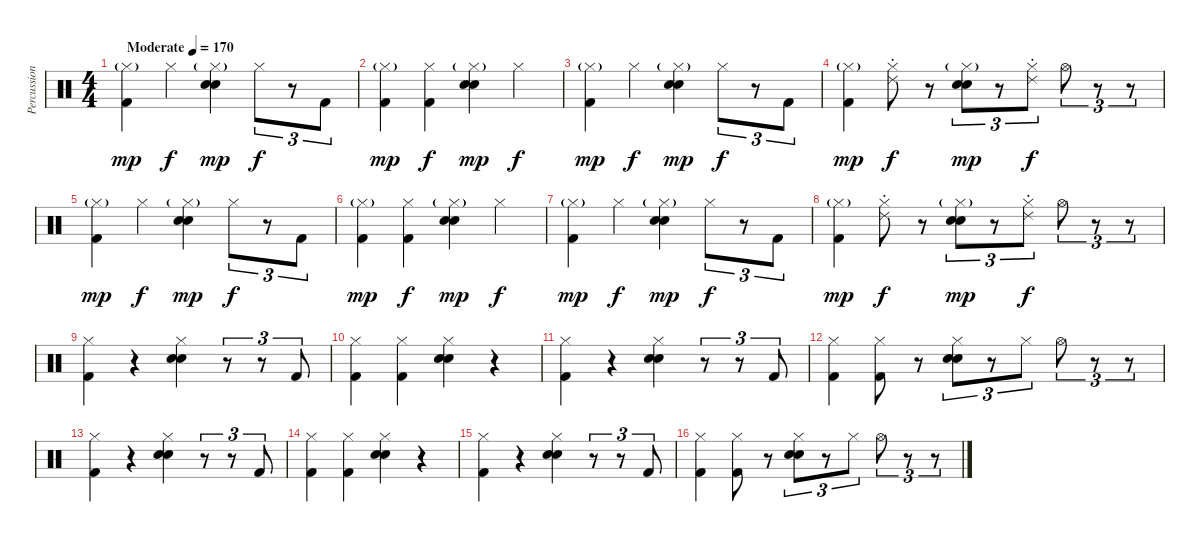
\track ("Percussion" "Percussion") {instrument percussion}
\staff {score}
\articulation defaults
\ts (4 4)
\tempo (170 "Moderate")
\clef neutral
\ks c
("Hi-Hat (closed)"{g} "Kick (hit) 2").4{dy mp} "Hi-Hat (closed)".4{dy f} ("Hi-Hat (closed)"{g} "Hand Clap (hit)" "Electric Snare (hit)").4{dy mp} "Hi-Hat (closed)".8{tu (3 2) dy f} r.8{tu (3 2)} "Kick (hit) 2".8{tu (3 2)} |
("Hi-Hat (closed)"{g} "Kick (hit) 2").4{dy mp} ("Hi-Hat (closed)" "Kick (hit) 2").4{dy f} ("Hi-Hat (closed)"{g} "Hand Clap (hit)" "Electric Snare (hit)").4{dy mp} "Hi-Hat (closed)".4{dy f} |
("Hi-Hat (closed)"{g} "Kick (hit) 2").4{dy mp} "Hi-Hat (closed)".4{dy f} ("Hi-Hat (closed)"{g} "Hand Clap (hit)" "Electric Snare (hit)").4{dy mp} "Hi-Hat (closed)".8{tu (3 2) dy f} r.8{tu (3 2)} "Kick (hit) 2".8{tu (3 2)} |
("Hi-Hat (closed)"{g} "Kick (hit) 2").4{dy mp} ("Hi-Hat (closed)" "Ride (choke) 2").8{dy f} r.8 ("Hi-Hat (closed)"{g} "Hand Clap (hit)" "Electric Snare (hit)").8{tu (3 2) dy mp} r.8{tu (3 2)} ("Hi-Hat (closed)" "Ride (choke) 2").8{tu (3 2) dy f} "Hi-Hat (open)".8{tu (3 2)} r.8{tu (3 2)} r.8{tu (3 2)} |
("Hi-Hat (closed)"{g} "Kick (hit) 2").4{dy mp} "Hi-Hat (closed)".4{dy f} ("Hi-Hat (closed)"{g} "Hand Clap (hit)" "Electric Snare (hit)").4{dy mp} "Hi-Hat (closed)".8{tu (3 2) dy f} r.8{tu (3 2)} "Kick (hit) 2".8{tu (3 2)} |
("Hi-Hat (closed)"{g} "Kick (hit) 2").4{dy mp} ("Hi-Hat (closed)" "Kick (hit) 2").4{dy f} ("Hi-Hat (closed)"{g} "Hand Clap (hit)" "Electric Snare (hit)").4{dy mp} "Hi-Hat (closed)".4{dy f} |
("Hi-Hat (closed)"{g} "Kick (hit) 2").4{dy mp} "Hi-Hat (closed)".4{dy f} ("Hi-Hat (closed)"{g} "Hand Clap (hit)" "Electric Snare (hit)").4{dy mp} "Hi-Hat (closed)".8{tu (3 2) dy f} r.8{tu (3 2)} "Kick (hit) 2".8{tu (3 2)} |
("Hi-Hat (closed)"{g} "Kick (hit) 2").4{dy mp} ("Hi-Hat (closed)" "Ride (choke) 2").8{dy f} r.8 ("Hi-Hat (closed)"{g} "Hand Clap (hit)" "Electric Snare (hit)").8{tu (3 2) dy mp} r.8{tu (3 2)} ("Hi-Hat (closed)" "Ride (choke) 2").8{tu (3 2) dy f} "Hi-Hat (open)".8{tu (3 2)} r.8{tu (3 2)} r.8{tu (3 2)} |
("Hi-Hat (closed)" "Kick (hit) 2").4 r.4 ("Hi-Hat (closed)" "Hand Clap (hit)" "Electric Snare (hit)").4 r.8{tu (3 2)} r.8{tu (3 2)} "Kick (hit) 2".8{tu (3 2)} |
("Hi-Hat (closed)" "Kick (hit) 2").4 ("Hi-Hat (closed)" "Kick (hit) 2").4 ("Hi-Hat (closed)" "Hand Clap (hit)" "Electric Snare (hit)").4 r.4 |
("Hi-Hat (closed)" "Kick (hit) 2").4 r.4 ("Hi-Hat (closed)" "Hand Clap (hit)" "Electric Snare (hit)").4 r.8{tu (3 2)} r.8{tu (3 2)} "Kick (hit) 2".8{tu (3 2)} |
("Hi-Hat (closed)" "Kick (hit) 2").4 ("Hi-Hat (closed)" "Kick (hit) 2").8 r.8 ("Hi-Hat (closed)" "Hand Clap (hit)" "Electric Snare (hit)").8{tu (3 2)} r.8{tu (3 2)} "Hi-Hat (closed)".8{tu (3 2)} "Hi-Hat (open)".8{tu (3 2)} r.8{tu (3 2)} r.8{tu (3 2)} |
("Hi-Hat (closed)" "Kick (hit) 2").4 r.4 ("Hi-Hat (closed)" "Hand Clap (hit)" "Electric Snare (hit)").4 r.8{tu (3 2)} r.8{tu (3 2)} "Kick (hit) 2".8{tu (3 2)} |
("Hi-Hat (closed)" "Kick (hit) 2").4 ("Hi-Hat (closed)" "Kick (hit) 2").4 ("Hi-Hat (closed)" "Hand Clap (hit)" "Electric Snare (hit)").4 r.4 |
("Hi-Hat (closed)" "Kick (hit) 2").4 r.4 ("Hi-Hat (closed)" "Hand Clap (hit)" "Electric Snare (hit)").4 r.8{tu (3 2)} r.8{tu (3 2)} "Kick (hit) 2".8{tu (3 2)} |
("Hi-Hat (closed)" "Kick (hit) 2").4 ("Hi-Hat (closed)" "Kick (hit) 2").8 r.8 ("Hi-Hat (closed)" "Hand Clap (hit)" "Electric Snare (hit)").8{tu (3 2)} r.8{tu (3 2)} "Hi-Hat (closed)".8{tu (3 2)} "Hi-Hat (open)".8{tu (3 2)} r.8{tu (3 2)} r.8{tu (3 2)}
